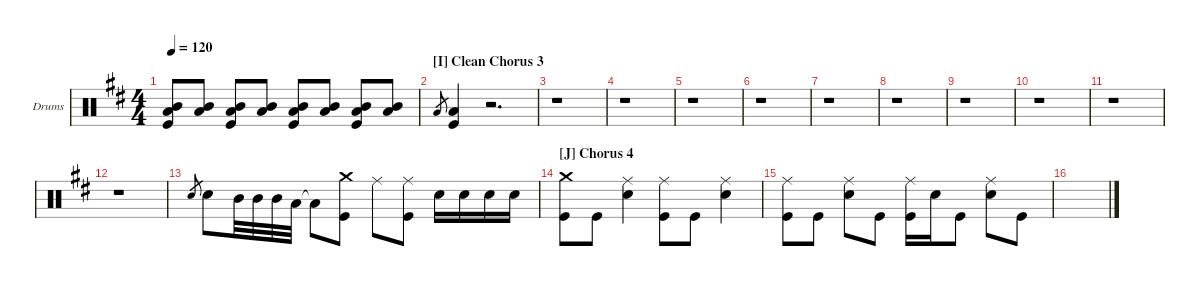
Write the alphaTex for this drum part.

\hideDynamics
\bracketExtendMode nobrackets
\firstSystemTrackNameOrientation horizontal
\otherSystemsTrackNameOrientation horizontal
\track ("Drums" "Drums") {instrument percussion}
\staff {score}
\articulation defaults
\ts (4 4)
\tempo 120
\clef neutral
\ks bminor
("Kick (hit)" "Low Tom (hit)" "Mid Tom (hit)").8{dy f} ("Low Tom (hit)" "Mid Tom (hit)").8 ("Kick (hit)" "Low Tom (hit)" "Mid Tom (hit)").8 ("Low Tom (hit)" "Mid Tom (hit)").8 ("Kick (hit)" "Low Tom (hit)" "Mid Tom (hit)").8 ("Low Tom (hit)" "Mid Tom (hit)").8 ("Kick (hit)" "Low Tom (hit)" "Mid Tom (hit)").8 ("Low Tom (hit)" "Mid Tom (hit)").8 |
\section ("I" "Clean Chorus 3")
"Low Tom (hit)".8{gr dy fff} ("Kick (hit)" "Low Tom (hit)").4{dy f} r.2{d} |
r.1 |
r.1 |
r.1 |
r.1 |
r.1 |
r.1 |
r.1 |
r.1 |
r.1 |
r.1 |
"Snare (hit) 2".8{gr} "Snare (hit) 2".8 "Mid Tom (hit)".32 "Mid Tom (hit)".32 "Mid Tom (hit)".32 "Low Tom (hit)".32 "Low Tom (hit)"{t}.8 ("Kick (hit)" "Crash medium (hit)").8 "Ride (middle)".8 ("Ride (middle)" "Kick (hit)").8 "Snare (hit) 2".16 "Snare (hit) 2".16 "Snare (hit) 2".16 "Snare (hit) 2".16 |
\section ("J" "Chorus 4")
("Kick (hit)" "Crash medium (hit)").8{dy ff} "Kick (hit)".8 ("Snare (hit) 2" "Ride (middle)").4 ("Kick (hit)" "Ride (middle)").8 "Kick (hit)".8 ("Snare (hit) 2" "Ride (middle)").4 |
("Kick (hit)" "Ride (middle)").8 "Kick (hit)".8 ("Snare (hit) 2" "Ride (middle)").8 "Kick (hit)".8 ("Kick (hit)" "Ride (middle)").16 "Snare (hit) 2".16 "Kick (hit)".8 ("Snare (hit) 2" "Ride (middle)").8 "Kick (hit)".8 |
\simile firstofdouble
